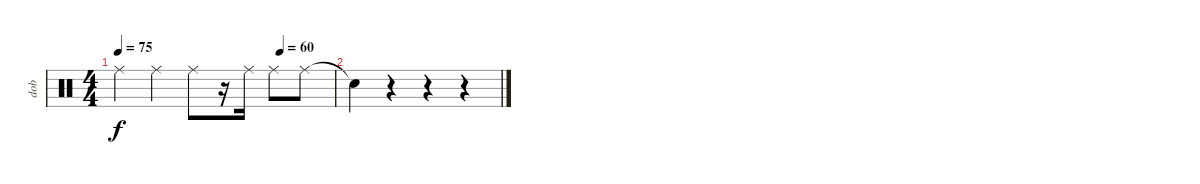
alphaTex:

\track ("dob" "dob") {instrument percussion}
\staff {score}
\articulation defaults
\ts (4 4)
\tempo 75
\tempo (60 0.75)
\clef neutral
\ks c "Ride (middle)".4{dy f} "Ride (middle)".4 "Ride (middle)".8
r.16 "Ride (middle)".16 "Ride (middle)".8 "Ride (middle)".8 |
"Snare (hit)"{t}.4 r.4 r.4 r.4
